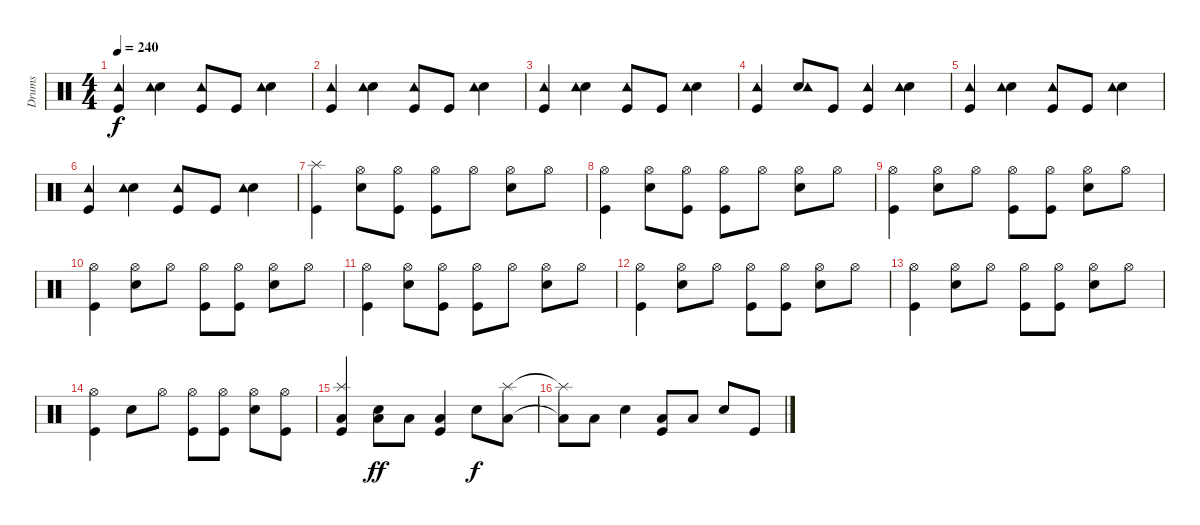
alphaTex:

\track ("Drums" "Drums") {instrument percussion}
\staff {score}
\articulation defaults
\ts (4 4)
\tempo 240
\clef neutral
\ks c
("Kick (hit)" "Tambourine (hit)").4{dy f} ("Snare (hit) 2" "Tambourine (hit)").4 ("Kick (hit)" "Tambourine (hit)").8 "Kick (hit)".8 ("Snare (hit) 2" "Tambourine (hit)").4 |
("Kick (hit)" "Tambourine (hit)").4 ("Snare (hit) 2" "Tambourine (hit)").4 ("Kick (hit)" "Tambourine (hit)").8 "Kick (hit)".8 ("Snare (hit) 2" "Tambourine (hit)").4 |
("Kick (hit)" "Tambourine (hit)").4 ("Snare (hit) 2" "Tambourine (hit)").4 ("Kick (hit)" "Tambourine (hit)").8 "Kick (hit)".8 ("Snare (hit) 2" "Tambourine (hit)").4 |
("Kick (hit)" "Tambourine (hit)").4 ("Snare (hit) 2" "Tambourine (hit)").8 "Kick (hit)".8 ("Kick (hit)" "Tambourine (hit)").4 ("Snare (hit) 2" "Tambourine (hit)").4 |
("Kick (hit)" "Tambourine (hit)").4 ("Snare (hit) 2" "Tambourine (hit)").4 ("Kick (hit)" "Tambourine (hit)").8 "Kick (hit)".8 ("Snare (hit) 2" "Tambourine (hit)").4 |
("Kick (hit)" "Tambourine (hit)").4 ("Snare (hit) 2" "Tambourine (hit)").4 ("Kick (hit)" "Tambourine (hit)").8 "Kick (hit)".8 ("Snare (hit) 2" "Tambourine (hit)").4 |
("Kick (hit)" "Splash (hit)").4 ("Snare (hit) 2" "Hi-Hat (open)").8 ("Kick (hit)" "Hi-Hat (open)").8 ("Kick (hit)" "Hi-Hat (open)").8 "Hi-Hat (open)".8 ("Snare (hit) 2" "Hi-Hat (open)").8 "Hi-Hat (open)".8 |
("Kick (hit)" "Hi-Hat (open)").4 ("Snare (hit) 2" "Hi-Hat (open)").8 ("Kick (hit)" "Hi-Hat (open)").8 ("Kick (hit)" "Hi-Hat (open)").8 "Hi-Hat (open)".8 ("Snare (hit) 2" "Hi-Hat (open)").8 "Hi-Hat (open)".8 |
("Kick (hit)" "Hi-Hat (open)").4 ("Snare (hit) 2" "Hi-Hat (open)").8 "Hi-Hat (open)".8 ("Kick (hit)" "Hi-Hat (open)").8 ("Kick (hit)" "Hi-Hat (open)").8 ("Snare (hit) 2" "Hi-Hat (open)").8 "Hi-Hat (open)".8 |
("Kick (hit)" "Hi-Hat (open)").4 ("Snare (hit) 2" "Hi-Hat (open)").8 "Hi-Hat (open)".8 ("Kick (hit)" "Hi-Hat (open)").8 ("Kick (hit)" "Hi-Hat (open)").8 ("Snare (hit) 2" "Hi-Hat (open)").8 "Hi-Hat (open)".8 |
("Kick (hit)" "Hi-Hat (open)").4 ("Snare (hit) 2" "Hi-Hat (open)").8 ("Kick (hit)" "Hi-Hat (open)").8 ("Kick (hit)" "Hi-Hat (open)").8 "Hi-Hat (open)".8 ("Snare (hit) 2" "Hi-Hat (open)").8 "Hi-Hat (open)".8 |
("Kick (hit)" "Hi-Hat (open)").4 ("Snare (hit) 2" "Hi-Hat (open)").8 "Hi-Hat (open)".8 ("Kick (hit)" "Hi-Hat (open)").8 ("Kick (hit)" "Hi-Hat (open)").8 ("Snare (hit) 2" "Hi-Hat (open)").8 "Hi-Hat (open)".8 |
("Kick (hit)" "Hi-Hat (open)").4 ("Snare (hit) 2" "Hi-Hat (open)").8 "Hi-Hat (open)".8 ("Kick (hit)" "Hi-Hat (open)").8 ("Kick (hit)" "Hi-Hat (open)").8 ("Snare (hit) 2" "Hi-Hat (open)").8 "Hi-Hat (open)".8 |
("Kick (hit)" "Hi-Hat (open)").4 "Snare (hit) 2".8 "Hi-Hat (open)".8 ("Kick (hit)" "Hi-Hat (open)").8 ("Kick (hit)" "Hi-Hat (open)").8 ("Snare (hit) 2" "Hi-Hat (open)").8 ("Kick (hit)" "Hi-Hat (open)").8 |
("Splash (hit)" "Low Floor Tom (hit)" "Kick (hit)").4 ("Low Floor Tom (hit)" "Snare (hit) 2").8{dy ff} "Low Floor Tom (hit)".8 ("Low Floor Tom (hit)" "Kick (hit)").4 "Snare (hit) 2".8{dy f} ("Splash (hit)" "Low Floor Tom (hit)").8 |
("Splash (hit)"{t} "Low Floor Tom (hit)"{t}).8 "Low Floor Tom (hit)".8 "Snare (hit) 2".4 ("Low Floor Tom (hit)" "Kick (hit)").8 "Low Floor Tom (hit)".8 "Snare (hit) 2".8 "Kick (hit)".8
